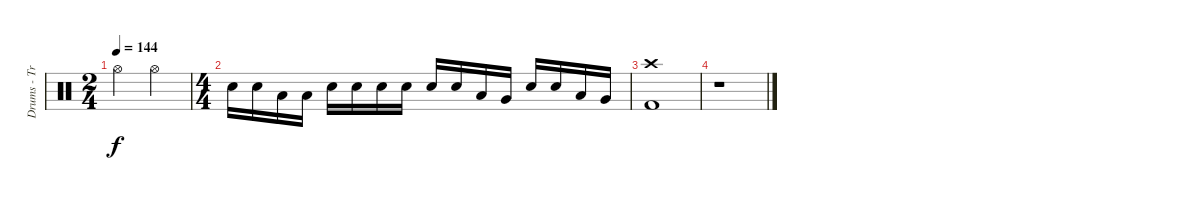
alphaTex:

\track ("Drums - Tre Cool" "Drums - Tr") {instrument percussion}
\staff {score}
\articulation defaults
\ts (2 4)
\tempo 144
\clef neutral
\ks c "Hi-Hat (open)".4{dy f} "Hi-Hat (open)".4
|
\ts (4 4)
"Snare (hit) 2".16 "Snare (hit) 2".16 "Low Floor Tom (hit)".16 "Low Floor Tom (hit)".16 "Snare (hit) 2".16 "Snare (hit) 2".16 "Snare (hit) 2".16 "Snare (hit) 2".16 "Snare (hit) 2".16 "Snare (hit) 2".16 "Low Floor Tom (hit)".16 "Very Low Tom (hit)".16 "Snare (hit) 2".16 "Snare (hit) 2".16 "Low Floor Tom (hit)".16 "Very Low Tom (hit)".16 |
("Crash high (hit)" "Kick (hit) 2").1 |
r.1
